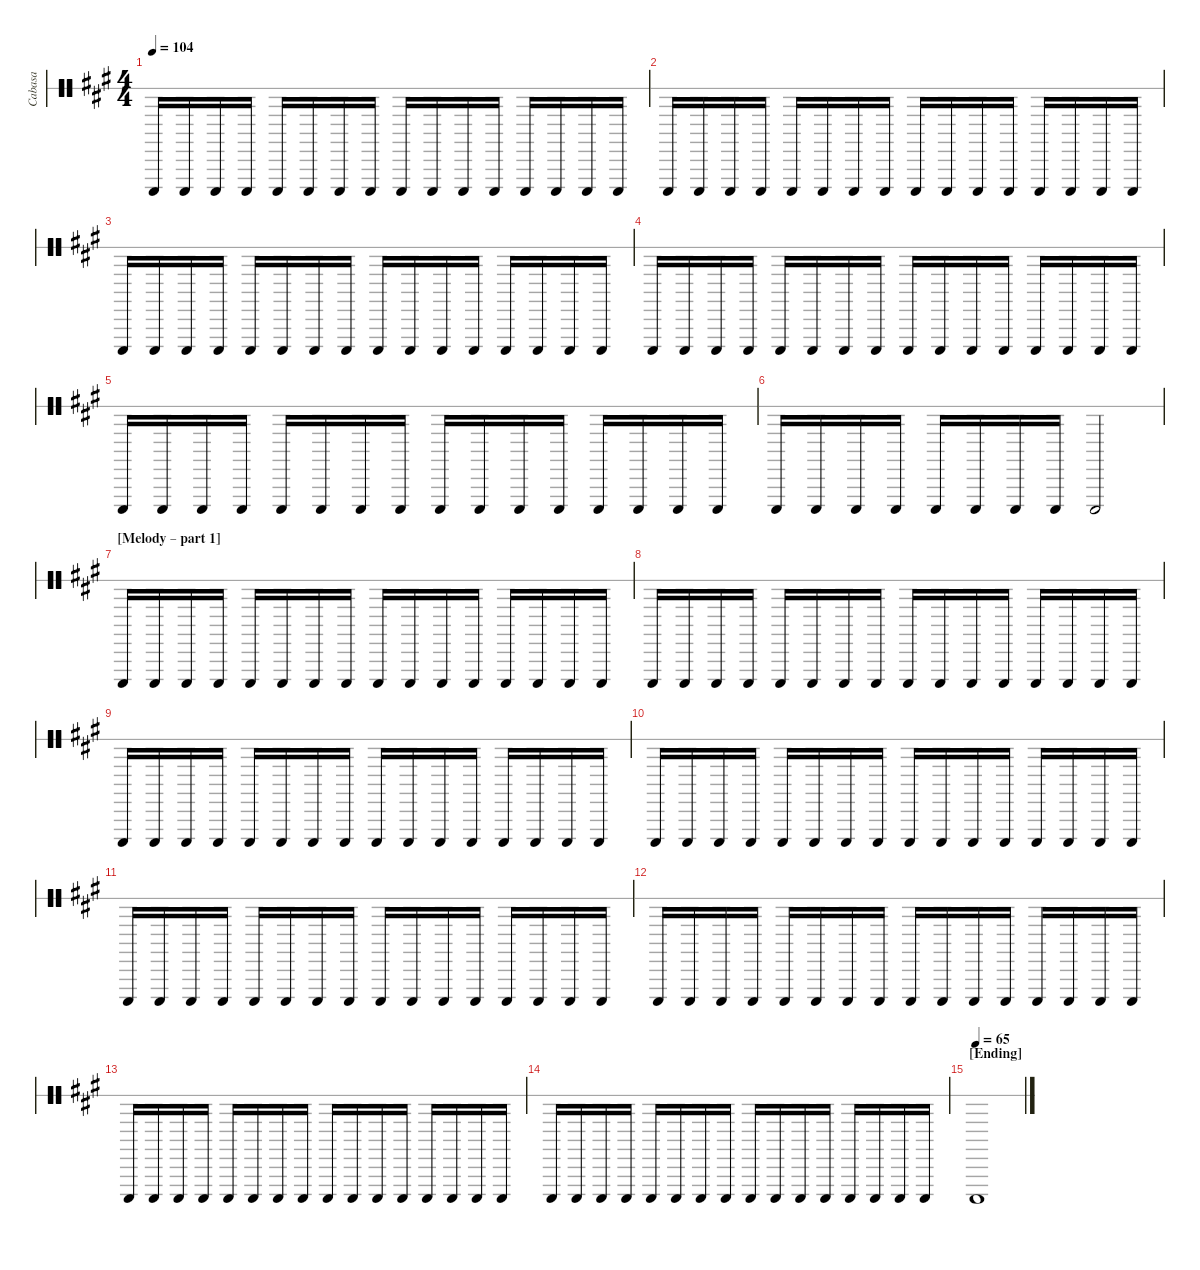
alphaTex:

\hideDynamics
\bracketExtendMode nobrackets
\otherSystemsTrackNameOrientation horizontal
\track ("Cabasa" "Cabasa") {instrument percussion}
\staff {score 1}
\articulation defaults
\ts (4 4)
\tempo 104
\clef neutral
\ks a "Cabasa (hit)"{acc forcenatural}.16{dy f beam Up} "Cabasa (hit)"{acc forcenatural}.16{beam Up} "Cabasa (hit)"{acc forcenatural}.16{beam Up} "Cabasa (hit)"{acc forcenatural}.16{beam Up} "Cabasa (hit)"{acc forcenatural}.16{beam Up} "Cabasa (hit)"{acc forcenatural}.16{beam Up} "Cabasa (hit)"{acc forcenatural}.16{beam Up} "Cabasa (hit)"{acc forcenatural}.16{beam Up} "Cabasa (hit)"{acc forcenatural}.16{beam Up} "Cabasa (hit)"{acc forcenatural}.16{beam Up} "Cabasa (hit)"{acc forcenatural}.16{beam Up} "Cabasa (hit)"{acc forcenatural}.16{beam Up} "Cabasa (hit)"{acc forcenatural}.16{beam Up} "Cabasa (hit)"{acc forcenatural}.16{beam Up} "Cabasa (hit)"{acc forcenatural}.16{beam Up} "Cabasa (hit)"{acc forcenatural}.16{beam Up}
|
"Cabasa (hit)"{acc forcenatural}.16{beam Up} "Cabasa (hit)"{acc forcenatural}.16{beam Up} "Cabasa (hit)"{acc forcenatural}.16{beam Up} "Cabasa (hit)"{acc forcenatural}.16{beam Up} "Cabasa (hit)"{acc forcenatural}.16{beam Up} "Cabasa (hit)"{acc forcenatural}.16{beam Up} "Cabasa (hit)"{acc forcenatural}.16{beam Up} "Cabasa (hit)"{acc forcenatural}.16{beam Up} "Cabasa (hit)"{acc forcenatural}.16{beam Up} "Cabasa (hit)"{acc forcenatural}.16{beam Up} "Cabasa (hit)"{acc forcenatural}.16{beam Up} "Cabasa (hit)"{acc forcenatural}.16{beam Up} "Cabasa (hit)"{acc forcenatural}.16{beam Up} "Cabasa (hit)"{acc forcenatural}.16{beam Up} "Cabasa (hit)"{acc forcenatural}.16{beam Up} "Cabasa (hit)"{acc forcenatural}.16{beam Up} |
"Cabasa (hit)"{acc forcenatural}.16{beam Up} "Cabasa (hit)"{acc forcenatural}.16{beam Up} "Cabasa (hit)"{acc forcenatural}.16{beam Up} "Cabasa (hit)"{acc forcenatural}.16{beam Up} "Cabasa (hit)"{acc forcenatural}.16{beam Up} "Cabasa (hit)"{acc forcenatural}.16{beam Up} "Cabasa (hit)"{acc forcenatural}.16{beam Up} "Cabasa (hit)"{acc forcenatural}.16{beam Up} "Cabasa (hit)"{acc forcenatural}.16{beam Up} "Cabasa (hit)"{acc forcenatural}.16{beam Up} "Cabasa (hit)"{acc forcenatural}.16{beam Up} "Cabasa (hit)"{acc forcenatural}.16{beam Up} "Cabasa (hit)"{acc forcenatural}.16{beam Up} "Cabasa (hit)"{acc forcenatural}.16{beam Up} "Cabasa (hit)"{acc forcenatural}.16{beam Up} "Cabasa (hit)"{acc forcenatural}.16{beam Up} |
"Cabasa (hit)"{acc forcenatural}.16{beam Up} "Cabasa (hit)"{acc forcenatural}.16{beam Up} "Cabasa (hit)"{acc forcenatural}.16{beam Up} "Cabasa (hit)"{acc forcenatural}.16{beam Up} "Cabasa (hit)"{acc forcenatural}.16{beam Up} "Cabasa (hit)"{acc forcenatural}.16{beam Up} "Cabasa (hit)"{acc forcenatural}.16{beam Up} "Cabasa (hit)"{acc forcenatural}.16{beam Up} "Cabasa (hit)"{acc forcenatural}.16{beam Up} "Cabasa (hit)"{acc forcenatural}.16{beam Up} "Cabasa (hit)"{acc forcenatural}.16{beam Up} "Cabasa (hit)"{acc forcenatural}.16{beam Up} "Cabasa (hit)"{acc forcenatural}.16{beam Up} "Cabasa (hit)"{acc forcenatural}.16{beam Up} "Cabasa (hit)"{acc forcenatural}.16{beam Up} "Cabasa (hit)"{acc forcenatural}.16{beam Up} |
"Cabasa (hit)"{acc forcenatural}.16{beam Up} "Cabasa (hit)"{acc forcenatural}.16{beam Up} "Cabasa (hit)"{acc forcenatural}.16{beam Up} "Cabasa (hit)"{acc forcenatural}.16{beam Up} "Cabasa (hit)"{acc forcenatural}.16{beam Up} "Cabasa (hit)"{acc forcenatural}.16{beam Up} "Cabasa (hit)"{acc forcenatural}.16{beam Up} "Cabasa (hit)"{acc forcenatural}.16{beam Up} "Cabasa (hit)"{acc forcenatural}.16{beam Up} "Cabasa (hit)"{acc forcenatural}.16{beam Up} "Cabasa (hit)"{acc forcenatural}.16{beam Up} "Cabasa (hit)"{acc forcenatural}.16{beam Up} "Cabasa (hit)"{acc forcenatural}.16{beam Up} "Cabasa (hit)"{acc forcenatural}.16{beam Up} "Cabasa (hit)"{acc forcenatural}.16{beam Up} "Cabasa (hit)"{acc forcenatural}.16{beam Up} |
"Cabasa (hit)"{acc forcenatural}.16{beam Up} "Cabasa (hit)"{acc forcenatural}.16{beam Up} "Cabasa (hit)"{acc forcenatural}.16{beam Up} "Cabasa (hit)"{acc forcenatural}.16{beam Up} "Cabasa (hit)"{acc forcenatural}.16{beam Up} "Cabasa (hit)"{acc forcenatural}.16{beam Up} "Cabasa (hit)"{acc forcenatural}.16{beam Up} "Cabasa (hit)"{acc forcenatural}.16{beam Up} "Cabasa (hit)"{acc forcenatural}.2{beam Up} |
\section ("" "[Melody – part 1] ")
"Cabasa (hit)"{acc forcenatural}.16{beam Up} "Cabasa (hit)"{acc forcenatural}.16{beam Up} "Cabasa (hit)"{acc forcenatural}.16{beam Up} "Cabasa (hit)"{acc forcenatural}.16{beam Up} "Cabasa (hit)"{acc forcenatural}.16{beam Up} "Cabasa (hit)"{acc forcenatural}.16{beam Up} "Cabasa (hit)"{acc forcenatural}.16{beam Up} "Cabasa (hit)"{acc forcenatural}.16{beam Up} "Cabasa (hit)"{acc forcenatural}.16{beam Up} "Cabasa (hit)"{acc forcenatural}.16{beam Up} "Cabasa (hit)"{acc forcenatural}.16{beam Up} "Cabasa (hit)"{acc forcenatural}.16{beam Up} "Cabasa (hit)"{acc forcenatural}.16{beam Up} "Cabasa (hit)"{acc forcenatural}.16{beam Up} "Cabasa (hit)"{acc forcenatural}.16{beam Up} "Cabasa (hit)"{acc forcenatural}.16{beam Up} |
"Cabasa (hit)"{acc forcenatural}.16{beam Up} "Cabasa (hit)"{acc forcenatural}.16{beam Up} "Cabasa (hit)"{acc forcenatural}.16{beam Up} "Cabasa (hit)"{acc forcenatural}.16{beam Up} "Cabasa (hit)"{acc forcenatural}.16{beam Up} "Cabasa (hit)"{acc forcenatural}.16{beam Up} "Cabasa (hit)"{acc forcenatural}.16{beam Up} "Cabasa (hit)"{acc forcenatural}.16{beam Up} "Cabasa (hit)"{acc forcenatural}.16{beam Up} "Cabasa (hit)"{acc forcenatural}.16{beam Up} "Cabasa (hit)"{acc forcenatural}.16{beam Up} "Cabasa (hit)"{acc forcenatural}.16{beam Up} "Cabasa (hit)"{acc forcenatural}.16{beam Up} "Cabasa (hit)"{acc forcenatural}.16{beam Up} "Cabasa (hit)"{acc forcenatural}.16{beam Up} "Cabasa (hit)"{acc forcenatural}.16{beam Up} |
"Cabasa (hit)"{acc forcenatural}.16{beam Up} "Cabasa (hit)"{acc forcenatural}.16{beam Up} "Cabasa (hit)"{acc forcenatural}.16{beam Up} "Cabasa (hit)"{acc forcenatural}.16{beam Up} "Cabasa (hit)"{acc forcenatural}.16{beam Up} "Cabasa (hit)"{acc forcenatural}.16{beam Up} "Cabasa (hit)"{acc forcenatural}.16{beam Up} "Cabasa (hit)"{acc forcenatural}.16{beam Up} "Cabasa (hit)"{acc forcenatural}.16{beam Up} "Cabasa (hit)"{acc forcenatural}.16{beam Up} "Cabasa (hit)"{acc forcenatural}.16{beam Up} "Cabasa (hit)"{acc forcenatural}.16{beam Up} "Cabasa (hit)"{acc forcenatural}.16{beam Up} "Cabasa (hit)"{acc forcenatural}.16{beam Up} "Cabasa (hit)"{acc forcenatural}.16{beam Up} "Cabasa (hit)"{acc forcenatural}.16{beam Up} |
"Cabasa (hit)"{acc forcenatural}.16{beam Up} "Cabasa (hit)"{acc forcenatural}.16{beam Up} "Cabasa (hit)"{acc forcenatural}.16{beam Up} "Cabasa (hit)"{acc forcenatural}.16{beam Up} "Cabasa (hit)"{acc forcenatural}.16{beam Up} "Cabasa (hit)"{acc forcenatural}.16{beam Up} "Cabasa (hit)"{acc forcenatural}.16{beam Up} "Cabasa (hit)"{acc forcenatural}.16{beam Up} "Cabasa (hit)"{acc forcenatural}.16{beam Up} "Cabasa (hit)"{acc forcenatural}.16{beam Up} "Cabasa (hit)"{acc forcenatural}.16{beam Up} "Cabasa (hit)"{acc forcenatural}.16{beam Up} "Cabasa (hit)"{acc forcenatural}.16{beam Up} "Cabasa (hit)"{acc forcenatural}.16{beam Up} "Cabasa (hit)"{acc forcenatural}.16{beam Up} "Cabasa (hit)"{acc forcenatural}.16{beam Up} |
"Cabasa (hit)"{acc forcenatural}.16{beam Up} "Cabasa (hit)"{acc forcenatural}.16{beam Up} "Cabasa (hit)"{acc forcenatural}.16{beam Up} "Cabasa (hit)"{acc forcenatural}.16{beam Up} "Cabasa (hit)"{acc forcenatural}.16{beam Up} "Cabasa (hit)"{acc forcenatural}.16{beam Up} "Cabasa (hit)"{acc forcenatural}.16{beam Up} "Cabasa (hit)"{acc forcenatural}.16{beam Up} "Cabasa (hit)"{acc forcenatural}.16{beam Up} "Cabasa (hit)"{acc forcenatural}.16{beam Up} "Cabasa (hit)"{acc forcenatural}.16{beam Up} "Cabasa (hit)"{acc forcenatural}.16{beam Up} "Cabasa (hit)"{acc forcenatural}.16{beam Up} "Cabasa (hit)"{acc forcenatural}.16{beam Up} "Cabasa (hit)"{acc forcenatural}.16{beam Up} "Cabasa (hit)"{acc forcenatural}.16{beam Up} |
"Cabasa (hit)"{acc forcenatural}.16{beam Up} "Cabasa (hit)"{acc forcenatural}.16{beam Up} "Cabasa (hit)"{acc forcenatural}.16{beam Up} "Cabasa (hit)"{acc forcenatural}.16{beam Up} "Cabasa (hit)"{acc forcenatural}.16{beam Up} "Cabasa (hit)"{acc forcenatural}.16{beam Up} "Cabasa (hit)"{acc forcenatural}.16{beam Up} "Cabasa (hit)"{acc forcenatural}.16{beam Up} "Cabasa (hit)"{acc forcenatural}.16{beam Up} "Cabasa (hit)"{acc forcenatural}.16{beam Up} "Cabasa (hit)"{acc forcenatural}.16{beam Up} "Cabasa (hit)"{acc forcenatural}.16{beam Up} "Cabasa (hit)"{acc forcenatural}.16{beam Up} "Cabasa (hit)"{acc forcenatural}.16{beam Up} "Cabasa (hit)"{acc forcenatural}.16{beam Up} "Cabasa (hit)"{acc forcenatural}.16{beam Up} |
"Cabasa (hit)"{acc forcenatural}.16{beam Up} "Cabasa (hit)"{acc forcenatural}.16{beam Up} "Cabasa (hit)"{acc forcenatural}.16{beam Up} "Cabasa (hit)"{acc forcenatural}.16{beam Up} "Cabasa (hit)"{acc forcenatural}.16{beam Up} "Cabasa (hit)"{acc forcenatural}.16{beam Up} "Cabasa (hit)"{acc forcenatural}.16{beam Up} "Cabasa (hit)"{acc forcenatural}.16{beam Up} "Cabasa (hit)"{acc forcenatural}.16{beam Up} "Cabasa (hit)"{acc forcenatural}.16{beam Up} "Cabasa (hit)"{acc forcenatural}.16{beam Up} "Cabasa (hit)"{acc forcenatural}.16{beam Up} "Cabasa (hit)"{acc forcenatural}.16{beam Up} "Cabasa (hit)"{acc forcenatural}.16{beam Up} "Cabasa (hit)"{acc forcenatural}.16{beam Up} "Cabasa (hit)"{acc forcenatural}.16{beam Up} |
"Cabasa (hit)"{acc forcenatural}.16{beam Up} "Cabasa (hit)"{acc forcenatural}.16{beam Up} "Cabasa (hit)"{acc forcenatural}.16{beam Up} "Cabasa (hit)"{acc forcenatural}.16{beam Up} "Cabasa (hit)"{acc forcenatural}.16{beam Up} "Cabasa (hit)"{acc forcenatural}.16{beam Up} "Cabasa (hit)"{acc forcenatural}.16{beam Up} "Cabasa (hit)"{acc forcenatural}.16{beam Up} "Cabasa (hit)"{acc forcenatural}.16{beam Up} "Cabasa (hit)"{acc forcenatural}.16{beam Up} "Cabasa (hit)"{acc forcenatural}.16{beam Up} "Cabasa (hit)"{acc forcenatural}.16{beam Up} "Cabasa (hit)"{acc forcenatural}.16{beam Up} "Cabasa (hit)"{acc forcenatural}.16{beam Up} "Cabasa (hit)"{acc forcenatural}.16{beam Up} "Cabasa (hit)"{acc forcenatural}.16{beam Up} |
\section ("" "[Ending]")
\tempo (65)
"Cabasa (hit)"{acc forcenatural}.1{beam Down}
